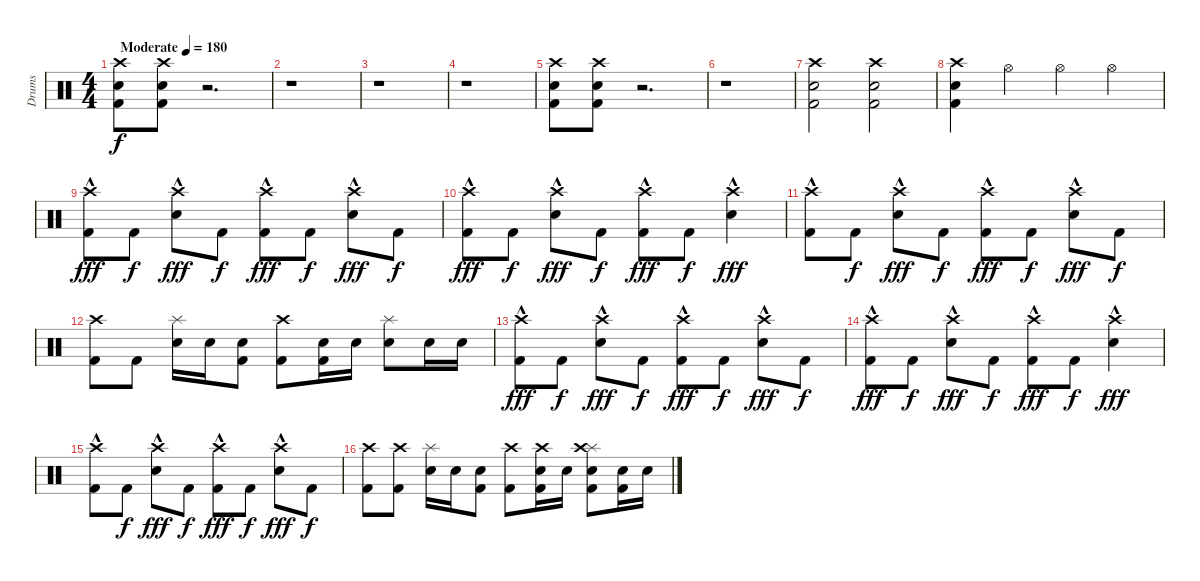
\track ("Drums" "Drums") {instrument percussion}
\staff {score}
\articulation defaults
\ts (4 4)
\tempo (180 "Moderate")
\clef neutral
\ks c
("Kick (hit) 2" "Electric Snare (hit)" "Crash high (hit)").8{dy f} ("Kick (hit) 2" "Electric Snare (hit)" "Crash high (hit)").8 r.2{d} |
r.1 |
r.1 |
r.1 |
("Kick (hit) 2" "Electric Snare (hit)" "Crash high (hit)").8 ("Kick (hit) 2" "Electric Snare (hit)" "Crash high (hit)").8 r.2{d} |
r.1 |
("Kick (hit) 2" "Electric Snare (hit)" "Crash high (hit)").2 ("Kick (hit) 2" "Electric Snare (hit)" "Crash high (hit)").2 |
("Kick (hit) 2" "Electric Snare (hit)" "Crash high (hit)").4 "Hi-Hat (open)".4 "Hi-Hat (open)".4 "Hi-Hat (open)".4 |
("Kick (hit) 2" "Crash high (hit)"{hac}).8{dy fff} "Kick (hit) 2".8{dy f} ("Electric Snare (hit)" "Crash high (hit)"{hac}).8{dy fff} "Kick (hit) 2".8{dy f} ("Kick (hit) 2" "Crash high (hit)"{hac}).8{dy fff} "Kick (hit) 2".8{dy f} ("Electric Snare (hit)" "Crash high (hit)"{hac}).8{dy fff} "Kick (hit) 2".8{dy f} |
("Kick (hit) 2" "Crash high (hit)"{hac}).8{dy fff} "Kick (hit) 2".8{dy f} ("Electric Snare (hit)" "Crash high (hit)"{hac}).8{dy fff} "Kick (hit) 2".8{dy f} ("Kick (hit) 2" "Crash high (hit)"{hac}).8{dy fff} "Kick (hit) 2".8{dy f} ("Electric Snare (hit)" "Crash high (hit)"{hac}).4{dy fff} |
("Kick (hit) 2" "Crash high (hit)"{hac}).8 "Kick (hit) 2".8{dy f} ("Electric Snare (hit)" "Crash high (hit)"{hac}).8{dy fff} "Kick (hit) 2".8{dy f} ("Kick (hit) 2" "Crash high (hit)"{hac}).8{dy fff} "Kick (hit) 2".8{dy f} ("Electric Snare (hit)" "Crash high (hit)"{hac}).8{dy fff} "Kick (hit) 2".8{dy f} |
("Kick (hit) 2" "Crash high (hit)").8 "Kick (hit) 2".8 ("Electric Snare (hit)" "Splash (hit)").16 "Electric Snare (hit)".16 ("Kick (hit) 2" "Electric Snare (hit)").8 ("Kick (hit) 2" "Crash high (hit)").8 ("Kick (hit) 2" "Electric Snare (hit)").16 "Electric Snare (hit)".16 ("Electric Snare (hit)" "Splash (hit)").8 "Electric Snare (hit)".16 "Electric Snare (hit)".16 |
("Kick (hit) 2" "Crash high (hit)"{hac}).8{dy fff} "Kick (hit) 2".8{dy f} ("Electric Snare (hit)" "Crash high (hit)"{hac}).8{dy fff} "Kick (hit) 2".8{dy f} ("Kick (hit) 2" "Crash high (hit)"{hac}).8{dy fff} "Kick (hit) 2".8{dy f} ("Electric Snare (hit)" "Crash high (hit)"{hac}).8{dy fff} "Kick (hit) 2".8{dy f} |
("Kick (hit) 2" "Crash high (hit)"{hac}).8{dy fff} "Kick (hit) 2".8{dy f} ("Electric Snare (hit)" "Crash high (hit)"{hac}).8{dy fff} "Kick (hit) 2".8{dy f} ("Kick (hit) 2" "Crash high (hit)"{hac}).8{dy fff} "Kick (hit) 2".8{dy f} ("Electric Snare (hit)" "Crash high (hit)"{hac}).4{dy fff} |
("Kick (hit) 2" "Crash high (hit)"{hac}).8 "Kick (hit) 2".8{dy f} ("Electric Snare (hit)" "Crash high (hit)"{hac}).8{dy fff} "Kick (hit) 2".8{dy f} ("Kick (hit) 2" "Crash high (hit)"{hac}).8{dy fff} "Kick (hit) 2".8{dy f} ("Electric Snare (hit)" "Crash high (hit)"{hac}).8{dy fff} "Kick (hit) 2".8{dy f} |
("Kick (hit) 2" "Crash high (hit)").8 ("Kick (hit) 2" "Crash high (hit)").8 ("Electric Snare (hit)" "Splash (hit)").16 "Electric Snare (hit)".16 ("Kick (hit) 2" "Electric Snare (hit)").8 ("Kick (hit) 2" "Crash high (hit)").8 ("Kick (hit) 2" "Electric Snare (hit)" "Crash high (hit)").16 "Electric Snare (hit)".16 ("Kick (hit) 2" "Electric Snare (hit)" "Splash (hit)" "Crash high (hit)").8 ("Kick (hit) 2" "Electric Snare (hit)").16 "Electric Snare (hit)".16
